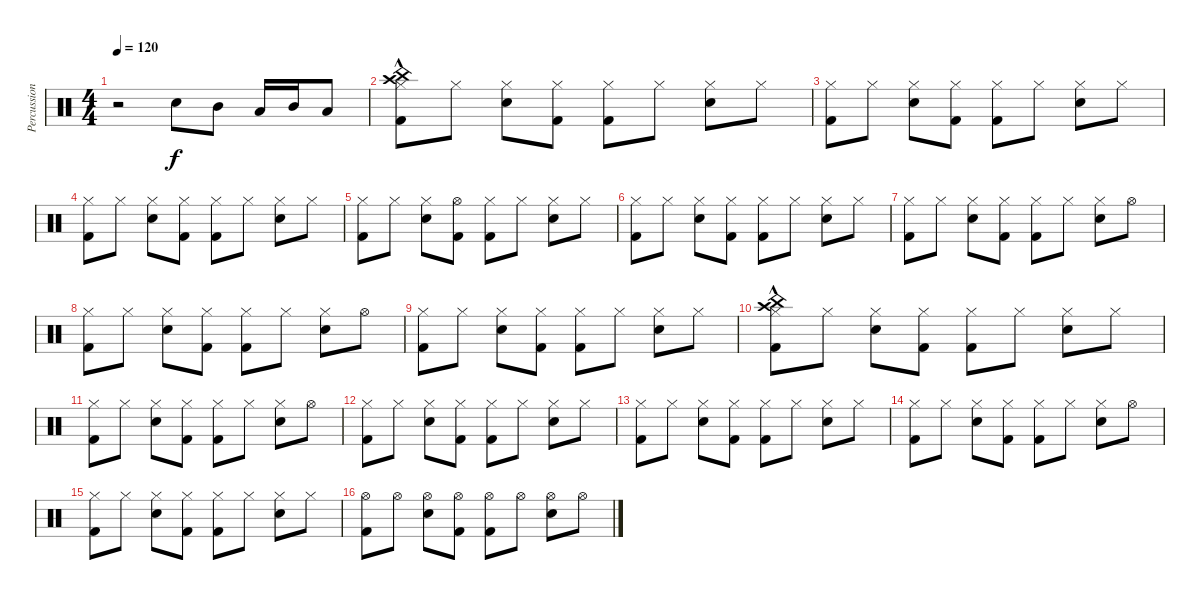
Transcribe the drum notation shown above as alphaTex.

\track ("Percussion" "Percussion") {instrument percussion}
\staff {score}
\articulation defaults
\ts (4 4)
\tempo 120
\clef neutral
\ks c
r.2{dy f} "Snare (hit) 2".8 "Mid Tom (hit)".8 "Low Tom (hit)".16 "Mid Tom (hit)".16 "Low Tom (hit)".8 |
("Crash high (hit)" "Hi-Hat (closed)"{hac} "Kick (hit) 2"{hac} "China (hit)"{hac}).8 "Hi-Hat (closed)".8 ("Snare (hit) 2" "Hi-Hat (closed)").8 ("Kick (hit) 2" "Hi-Hat (closed)").8 ("Kick (hit) 2" "Hi-Hat (closed)").8 "Hi-Hat (closed)".8 ("Hi-Hat (closed)" "Snare (hit) 2").8 "Hi-Hat (closed)".8 |
("Hi-Hat (closed)" "Kick (hit) 2").8 "Hi-Hat (closed)".8 ("Snare (hit) 2" "Hi-Hat (closed)").8 ("Kick (hit) 2" "Hi-Hat (closed)").8 ("Kick (hit) 2" "Hi-Hat (closed)").8 "Hi-Hat (closed)".8 ("Hi-Hat (closed)" "Snare (hit) 2").8 "Hi-Hat (closed)".8 |
("Hi-Hat (closed)" "Kick (hit) 2").8 "Hi-Hat (closed)".8 ("Snare (hit) 2" "Hi-Hat (closed)").8 ("Kick (hit) 2" "Hi-Hat (closed)").8 ("Kick (hit) 2" "Hi-Hat (closed)").8 "Hi-Hat (closed)".8 ("Hi-Hat (closed)" "Snare (hit) 2").8 "Hi-Hat (closed)".8 |
("Hi-Hat (closed)" "Kick (hit) 2").8 "Hi-Hat (closed)".8 ("Snare (hit) 2" "Hi-Hat (closed)").8 ("Hi-Hat (open)" "Kick (hit) 2").8 ("Kick (hit) 2" "Hi-Hat (closed)").8 "Hi-Hat (closed)".8 ("Hi-Hat (closed)" "Snare (hit) 2").8 "Hi-Hat (closed)".8 |
("Hi-Hat (closed)" "Kick (hit) 2").8 "Hi-Hat (closed)".8 ("Snare (hit) 2" "Hi-Hat (closed)").8 ("Kick (hit) 2" "Hi-Hat (closed)").8 ("Kick (hit) 2" "Hi-Hat (closed)").8 "Hi-Hat (closed)".8 ("Hi-Hat (closed)" "Snare (hit) 2").8 "Hi-Hat (closed)".8 |
("Hi-Hat (closed)" "Kick (hit) 2").8 "Hi-Hat (closed)".8 ("Snare (hit) 2" "Hi-Hat (closed)").8 ("Kick (hit) 2" "Hi-Hat (closed)").8 ("Kick (hit) 2" "Hi-Hat (closed)").8 "Hi-Hat (closed)".8 ("Hi-Hat (closed)" "Snare (hit) 2").8 "Hi-Hat (open)".8 |
("Hi-Hat (closed)" "Kick (hit) 2").8 "Hi-Hat (closed)".8 ("Snare (hit) 2" "Hi-Hat (closed)").8 ("Kick (hit) 2" "Hi-Hat (closed)").8 ("Kick (hit) 2" "Hi-Hat (closed)").8 "Hi-Hat (closed)".8 ("Hi-Hat (closed)" "Snare (hit) 2").8 "Hi-Hat (open)".8 |
("Hi-Hat (closed)" "Kick (hit) 2").8 "Hi-Hat (closed)".8 ("Snare (hit) 2" "Hi-Hat (closed)").8 ("Kick (hit) 2" "Hi-Hat (closed)").8 ("Kick (hit) 2" "Hi-Hat (closed)").8 "Hi-Hat (closed)".8 ("Hi-Hat (closed)" "Snare (hit) 2").8 "Hi-Hat (closed)".8 |
("Crash high (hit)" "Hi-Hat (closed)"{hac} "Kick (hit) 2"{hac} "China (hit)"{hac}).8 "Hi-Hat (closed)".8 ("Snare (hit) 2" "Hi-Hat (closed)").8 ("Kick (hit) 2" "Hi-Hat (closed)").8 ("Kick (hit) 2" "Hi-Hat (closed)").8 "Hi-Hat (closed)".8 ("Hi-Hat (closed)" "Snare (hit) 2").8 "Hi-Hat (closed)".8 |
("Hi-Hat (closed)" "Kick (hit) 2").8 "Hi-Hat (closed)".8 ("Snare (hit) 2" "Hi-Hat (closed)").8 ("Kick (hit) 2" "Hi-Hat (closed)").8 ("Kick (hit) 2" "Hi-Hat (closed)").8 "Hi-Hat (closed)".8 ("Hi-Hat (closed)" "Snare (hit) 2").8 "Hi-Hat (open)".8 |
("Hi-Hat (closed)" "Kick (hit) 2").8 "Hi-Hat (closed)".8 ("Snare (hit) 2" "Hi-Hat (closed)").8 ("Kick (hit) 2" "Hi-Hat (closed)").8 ("Kick (hit) 2" "Hi-Hat (closed)").8 "Hi-Hat (closed)".8 ("Hi-Hat (closed)" "Snare (hit) 2").8 "Hi-Hat (closed)".8 |
("Hi-Hat (closed)" "Kick (hit) 2").8 "Hi-Hat (closed)".8 ("Snare (hit) 2" "Hi-Hat (closed)").8 ("Kick (hit) 2" "Hi-Hat (closed)").8 ("Kick (hit) 2" "Hi-Hat (closed)").8 "Hi-Hat (closed)".8 ("Hi-Hat (closed)" "Snare (hit) 2").8 "Hi-Hat (closed)".8 |
("Hi-Hat (closed)" "Kick (hit) 2").8 "Hi-Hat (closed)".8 ("Snare (hit) 2" "Hi-Hat (closed)").8 ("Kick (hit) 2" "Hi-Hat (closed)").8 ("Kick (hit) 2" "Hi-Hat (closed)").8 "Hi-Hat (closed)".8 ("Hi-Hat (closed)" "Snare (hit) 2").8 "Hi-Hat (open)".8 |
("Hi-Hat (closed)" "Kick (hit) 2").8 "Hi-Hat (closed)".8 ("Snare (hit) 2" "Hi-Hat (closed)").8 ("Kick (hit) 2" "Hi-Hat (closed)").8 ("Kick (hit) 2" "Hi-Hat (closed)").8 "Hi-Hat (closed)".8 ("Hi-Hat (closed)" "Snare (hit) 2").8 "Hi-Hat (closed)".8 |
("Hi-Hat (open)" "Kick (hit) 2").8 "Hi-Hat (open)".8 ("Hi-Hat (open)" "Snare (hit) 2").8 ("Hi-Hat (open)" "Kick (hit) 2").8 ("Hi-Hat (open)" "Kick (hit) 2").8 "Hi-Hat (open)".8 ("Hi-Hat (open)" "Snare (hit) 2").8 "Hi-Hat (open)".8
